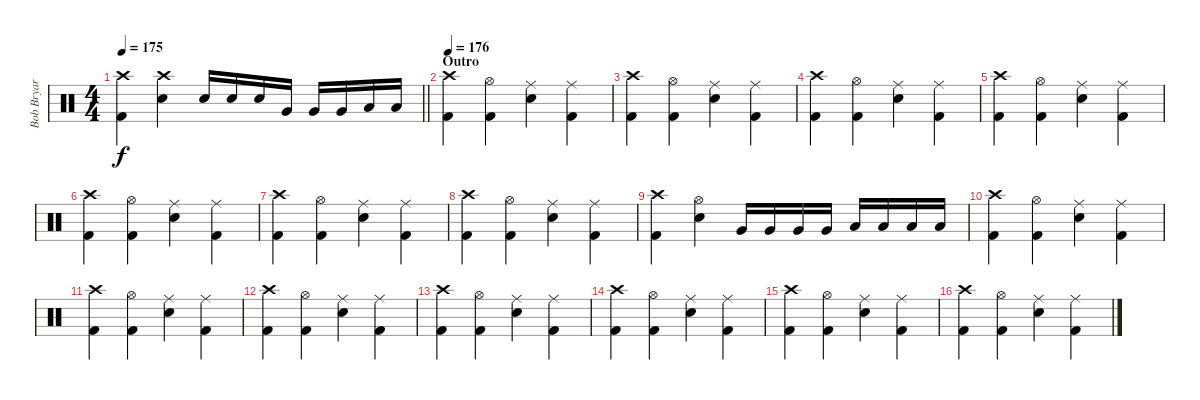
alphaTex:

\track ("Bob Bryar (percussion)" "Bob Bryar ") {instrument percussion}
\staff {score}
\articulation defaults
\ts (4 4)
\tempo 175
\clef neutral
\barLineRight lightlight
\ks c
("Crash high (hit)" "Kick (hit) 2").4{dy f} ("Crash high (hit)" "Electric Snare (hit)").4 "Electric Snare (hit)".16 "Electric Snare (hit)".16 "Electric Snare (hit)".16 "Very Low Tom (hit)".16 "Very Low Tom (hit)".16 "Very Low Tom (hit)".16 "Low Floor Tom (hit)".16 "Low Floor Tom (hit)".16 |
\section ("" "Outro")
\tempo 176
("Crash high (hit)" "Kick (hit) 2").4 ("Hi-Hat (open)" "Kick (hit) 2").4 ("Ride (middle)" "Electric Snare (hit)").4 ("Ride (middle)" "Kick (hit) 2").4 |
("Crash high (hit)" "Kick (hit) 2").4 ("Hi-Hat (open)" "Kick (hit) 2").4 ("Ride (middle)" "Electric Snare (hit)").4 ("Ride (middle)" "Kick (hit) 2").4 |
("Crash high (hit)" "Kick (hit) 2").4 ("Hi-Hat (open)" "Kick (hit) 2").4 ("Ride (middle)" "Electric Snare (hit)").4 ("Ride (middle)" "Kick (hit) 2").4 |
("Crash high (hit)" "Kick (hit) 2").4 ("Hi-Hat (open)" "Kick (hit) 2").4 ("Ride (middle)" "Electric Snare (hit)").4 ("Ride (middle)" "Kick (hit) 2").4 |
("Crash high (hit)" "Kick (hit) 2").4 ("Hi-Hat (open)" "Kick (hit) 2").4 ("Ride (middle)" "Electric Snare (hit)").4 ("Ride (middle)" "Kick (hit) 2").4 |
("Crash high (hit)" "Kick (hit) 2").4 ("Hi-Hat (open)" "Kick (hit) 2").4 ("Ride (middle)" "Electric Snare (hit)").4 ("Ride (middle)" "Kick (hit) 2").4 |
("Crash high (hit)" "Kick (hit) 2").4 ("Hi-Hat (open)" "Kick (hit) 2").4 ("Ride (middle)" "Electric Snare (hit)").4 ("Ride (middle)" "Kick (hit) 2").4 |
("Crash high (hit)" "Kick (hit) 2").4 ("Hi-Hat (open)" "Electric Snare (hit)").4 "Very Low Tom (hit)".16 "Very Low Tom (hit)".16 "Very Low Tom (hit)".16 "Very Low Tom (hit)".16 "Low Floor Tom (hit)".16 "Low Floor Tom (hit)".16 "Low Floor Tom (hit)".16 "Low Floor Tom (hit)".16 |
("Crash high (hit)" "Kick (hit) 2").4 ("Hi-Hat (open)" "Kick (hit) 2").4 ("Ride (middle)" "Electric Snare (hit)").4 ("Ride (middle)" "Kick (hit) 2").4 |
("Crash high (hit)" "Kick (hit) 2").4 ("Hi-Hat (open)" "Kick (hit) 2").4 ("Ride (middle)" "Electric Snare (hit)").4 ("Ride (middle)" "Kick (hit) 2").4 |
("Crash high (hit)" "Kick (hit) 2").4 ("Hi-Hat (open)" "Kick (hit) 2").4 ("Ride (middle)" "Electric Snare (hit)").4 ("Ride (middle)" "Kick (hit) 2").4 |
("Crash high (hit)" "Kick (hit) 2").4 ("Hi-Hat (open)" "Kick (hit) 2").4 ("Ride (middle)" "Electric Snare (hit)").4 ("Ride (middle)" "Kick (hit) 2").4 |
("Crash high (hit)" "Kick (hit) 2").4 ("Hi-Hat (open)" "Kick (hit) 2").4 ("Ride (middle)" "Electric Snare (hit)").4 ("Ride (middle)" "Kick (hit) 2").4 |
("Crash high (hit)" "Kick (hit) 2").4 ("Hi-Hat (open)" "Kick (hit) 2").4 ("Ride (middle)" "Electric Snare (hit)").4 ("Ride (middle)" "Kick (hit) 2").4 |
("Crash high (hit)" "Kick (hit) 2").4 ("Hi-Hat (open)" "Kick (hit) 2").4 ("Ride (middle)" "Electric Snare (hit)").4 ("Ride (middle)" "Kick (hit) 2").4
